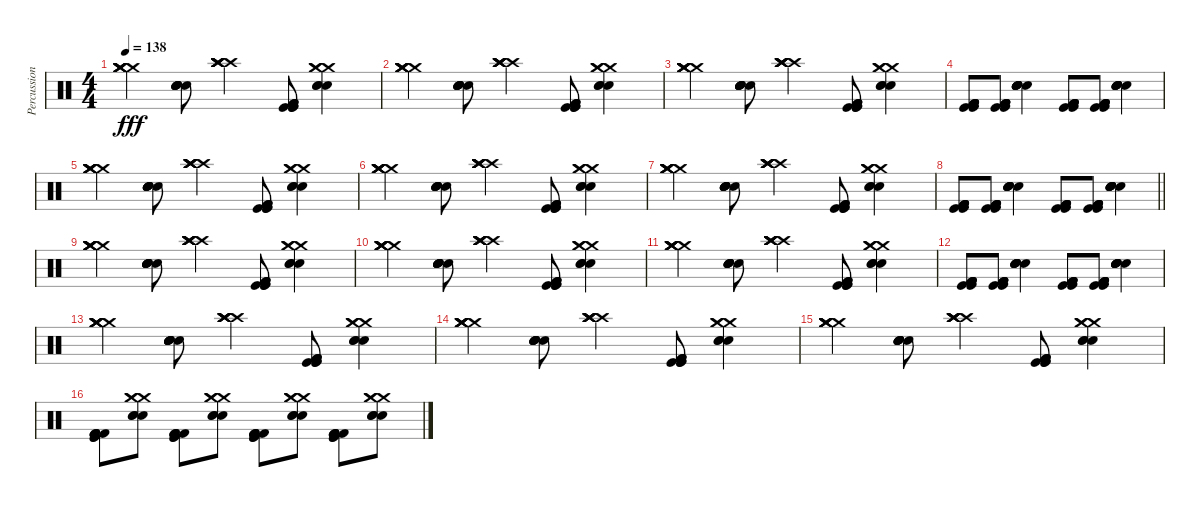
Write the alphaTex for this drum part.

\track ("Percussion" "Percussion") {instrument percussion}
\staff {score}
\articulation defaults
\ts (4 4)
\tempo 138
\clef neutral
\ks c
("Crash medium (hit)" "Crash medium (hit)" "Crash medium (hit)" "Crash medium (hit)" "Crash medium (hit)" "Crash medium (hit)").4{dy fff} ("Electric Snare (hit)" "Snare (hit) 2" "Electric Snare (hit)" "Electric Snare (hit)" "Snare (hit) 2" "Electric Snare (hit)").8 ("Crash high (hit)" "Crash high (hit)" "Crash high (hit)" "Crash high (hit)" "Crash high (hit)" "Crash high (hit)").4 ("Kick (hit)" "Kick (hit) 2" "Kick (hit)" "Kick (hit) 2" "Kick (hit) 2" "Kick (hit)").8 ("Crash medium (hit)" "Crash medium (hit)" "Crash medium (hit)" "Electric Snare (hit)" "Electric Snare (hit)" "Electric Snare (hit)").4 |
("Crash medium (hit)" "Crash medium (hit)" "Crash medium (hit)" "Crash medium (hit)" "Crash medium (hit)" "Crash medium (hit)").4 ("Electric Snare (hit)" "Snare (hit) 2" "Electric Snare (hit)" "Electric Snare (hit)" "Snare (hit) 2" "Electric Snare (hit)").8 ("Crash high (hit)" "Crash high (hit)" "Crash high (hit)" "Crash high (hit)" "Crash high (hit)" "Crash high (hit)").4 ("Kick (hit)" "Kick (hit) 2" "Kick (hit)" "Kick (hit) 2" "Kick (hit) 2" "Kick (hit)").8 ("Crash medium (hit)" "Crash medium (hit)" "Crash medium (hit)" "Electric Snare (hit)" "Electric Snare (hit)" "Electric Snare (hit)").4 |
("Crash medium (hit)" "Crash medium (hit)" "Crash medium (hit)" "Crash medium (hit)" "Crash medium (hit)" "Crash medium (hit)").4 ("Electric Snare (hit)" "Snare (hit) 2" "Electric Snare (hit)" "Electric Snare (hit)" "Snare (hit) 2" "Electric Snare (hit)").8 ("Crash high (hit)" "Crash high (hit)" "Crash high (hit)" "Crash high (hit)" "Crash high (hit)" "Crash high (hit)").4 ("Kick (hit)" "Kick (hit) 2" "Kick (hit)" "Kick (hit) 2" "Kick (hit) 2" "Kick (hit)").8 ("Crash medium (hit)" "Crash medium (hit)" "Crash medium (hit)" "Electric Snare (hit)" "Electric Snare (hit)" "Electric Snare (hit)").4 |
("Kick (hit) 2" "Kick (hit)" "Kick (hit) 2" "Kick (hit) 2" "Kick (hit)" "Kick (hit) 2").8 ("Kick (hit) 2" "Kick (hit)" "Kick (hit) 2" "Kick (hit) 2" "Kick (hit)" "Kick (hit) 2").8 ("Electric Snare (hit)" "Snare (hit) 2" "Electric Snare (hit)" "Electric Snare (hit)" "Snare (hit) 2" "Electric Snare (hit)").4 ("Kick (hit) 2" "Kick (hit)" "Kick (hit) 2" "Kick (hit) 2" "Kick (hit)" "Kick (hit) 2").8 ("Kick (hit) 2" "Kick (hit)" "Kick (hit) 2" "Kick (hit) 2" "Kick (hit)" "Kick (hit) 2").8 ("Electric Snare (hit)" "Snare (hit) 2" "Electric Snare (hit)" "Electric Snare (hit)" "Snare (hit) 2" "Electric Snare (hit)").4 |
("Crash medium (hit)" "Crash medium (hit)" "Crash medium (hit)" "Crash medium (hit)" "Crash medium (hit)" "Crash medium (hit)").4 ("Electric Snare (hit)" "Snare (hit) 2" "Electric Snare (hit)" "Electric Snare (hit)" "Snare (hit) 2" "Electric Snare (hit)").8 ("Crash high (hit)" "Crash high (hit)" "Crash high (hit)" "Crash high (hit)" "Crash high (hit)" "Crash high (hit)").4 ("Kick (hit)" "Kick (hit) 2" "Kick (hit)" "Kick (hit) 2" "Kick (hit) 2" "Kick (hit)").8 ("Crash medium (hit)" "Crash medium (hit)" "Crash medium (hit)" "Electric Snare (hit)" "Electric Snare (hit)" "Electric Snare (hit)").4 |
("Crash medium (hit)" "Crash medium (hit)" "Crash medium (hit)" "Crash medium (hit)" "Crash medium (hit)" "Crash medium (hit)").4 ("Electric Snare (hit)" "Snare (hit) 2" "Electric Snare (hit)" "Electric Snare (hit)" "Snare (hit) 2" "Electric Snare (hit)").8 ("Crash high (hit)" "Crash high (hit)" "Crash high (hit)" "Crash high (hit)" "Crash high (hit)" "Crash high (hit)").4 ("Kick (hit)" "Kick (hit) 2" "Kick (hit)" "Kick (hit) 2" "Kick (hit) 2" "Kick (hit)").8 ("Crash medium (hit)" "Crash medium (hit)" "Crash medium (hit)" "Electric Snare (hit)" "Electric Snare (hit)" "Electric Snare (hit)").4 |
("Crash medium (hit)" "Crash medium (hit)" "Crash medium (hit)" "Crash medium (hit)" "Crash medium (hit)" "Crash medium (hit)").4 ("Electric Snare (hit)" "Snare (hit) 2" "Electric Snare (hit)" "Electric Snare (hit)" "Snare (hit) 2" "Electric Snare (hit)").8 ("Crash high (hit)" "Crash high (hit)" "Crash high (hit)" "Crash high (hit)" "Crash high (hit)" "Crash high (hit)").4 ("Kick (hit)" "Kick (hit) 2" "Kick (hit)" "Kick (hit) 2" "Kick (hit) 2" "Kick (hit)").8 ("Crash medium (hit)" "Crash medium (hit)" "Crash medium (hit)" "Electric Snare (hit)" "Electric Snare (hit)" "Electric Snare (hit)").4 |
\barLineRight lightlight
("Kick (hit) 2" "Kick (hit)" "Kick (hit) 2" "Kick (hit) 2" "Kick (hit)" "Kick (hit) 2").8 ("Kick (hit) 2" "Kick (hit)" "Kick (hit) 2" "Kick (hit) 2" "Kick (hit)" "Kick (hit) 2").8 ("Electric Snare (hit)" "Snare (hit) 2" "Electric Snare (hit)" "Electric Snare (hit)" "Snare (hit) 2" "Electric Snare (hit)").4 ("Kick (hit) 2" "Kick (hit)" "Kick (hit) 2" "Kick (hit) 2" "Kick (hit)" "Kick (hit) 2").8 ("Kick (hit) 2" "Kick (hit)" "Kick (hit) 2" "Kick (hit) 2" "Kick (hit)" "Kick (hit) 2").8 ("Electric Snare (hit)" "Snare (hit) 2" "Electric Snare (hit)" "Electric Snare (hit)" "Snare (hit) 2" "Electric Snare (hit)").4 |
("Crash medium (hit)" "Crash medium (hit)" "Crash medium (hit)" "Crash medium (hit)" "Crash medium (hit)" "Crash medium (hit)").4 ("Electric Snare (hit)" "Snare (hit) 2" "Electric Snare (hit)" "Electric Snare (hit)" "Snare (hit) 2" "Electric Snare (hit)").8 ("Crash high (hit)" "Crash high (hit)" "Crash high (hit)" "Crash high (hit)" "Crash high (hit)" "Crash high (hit)").4 ("Kick (hit)" "Kick (hit) 2" "Kick (hit)" "Kick (hit) 2" "Kick (hit) 2" "Kick (hit)").8 ("Crash medium (hit)" "Crash medium (hit)" "Crash medium (hit)" "Electric Snare (hit)" "Electric Snare (hit)" "Electric Snare (hit)").4 |
("Crash medium (hit)" "Crash medium (hit)" "Crash medium (hit)" "Crash medium (hit)" "Crash medium (hit)" "Crash medium (hit)").4 ("Electric Snare (hit)" "Snare (hit) 2" "Electric Snare (hit)" "Electric Snare (hit)" "Snare (hit) 2" "Electric Snare (hit)").8 ("Crash high (hit)" "Crash high (hit)" "Crash high (hit)" "Crash high (hit)" "Crash high (hit)" "Crash high (hit)").4 ("Kick (hit)" "Kick (hit) 2" "Kick (hit)" "Kick (hit) 2" "Kick (hit) 2" "Kick (hit)").8 ("Crash medium (hit)" "Crash medium (hit)" "Crash medium (hit)" "Electric Snare (hit)" "Electric Snare (hit)" "Electric Snare (hit)").4 |
("Crash medium (hit)" "Crash medium (hit)" "Crash medium (hit)" "Crash medium (hit)" "Crash medium (hit)" "Crash medium (hit)").4 ("Electric Snare (hit)" "Snare (hit) 2" "Electric Snare (hit)" "Electric Snare (hit)" "Snare (hit) 2" "Electric Snare (hit)").8 ("Crash high (hit)" "Crash high (hit)" "Crash high (hit)" "Crash high (hit)" "Crash high (hit)" "Crash high (hit)").4 ("Kick (hit)" "Kick (hit) 2" "Kick (hit)" "Kick (hit) 2" "Kick (hit) 2" "Kick (hit)").8 ("Crash medium (hit)" "Crash medium (hit)" "Crash medium (hit)" "Electric Snare (hit)" "Electric Snare (hit)" "Electric Snare (hit)").4 |
("Kick (hit) 2" "Kick (hit)" "Kick (hit) 2" "Kick (hit) 2" "Kick (hit)" "Kick (hit) 2").8 ("Kick (hit) 2" "Kick (hit)" "Kick (hit) 2" "Kick (hit) 2" "Kick (hit)" "Kick (hit) 2").8 ("Electric Snare (hit)" "Snare (hit) 2" "Electric Snare (hit)" "Electric Snare (hit)" "Snare (hit) 2" "Electric Snare (hit)").4 ("Kick (hit) 2" "Kick (hit)" "Kick (hit) 2" "Kick (hit) 2" "Kick (hit)" "Kick (hit) 2").8 ("Kick (hit) 2" "Kick (hit)" "Kick (hit) 2" "Kick (hit) 2" "Kick (hit)" "Kick (hit) 2").8 ("Electric Snare (hit)" "Snare (hit) 2" "Electric Snare (hit)" "Electric Snare (hit)" "Snare (hit) 2" "Electric Snare (hit)").4 |
("Crash medium (hit)" "Crash medium (hit)" "Crash medium (hit)" "Crash medium (hit)" "Crash medium (hit)" "Crash medium (hit)").4 ("Electric Snare (hit)" "Snare (hit) 2" "Electric Snare (hit)" "Electric Snare (hit)" "Snare (hit) 2" "Electric Snare (hit)").8 ("Crash high (hit)" "Crash high (hit)" "Crash high (hit)" "Crash high (hit)" "Crash high (hit)" "Crash high (hit)").4 ("Kick (hit)" "Kick (hit) 2" "Kick (hit)" "Kick (hit) 2" "Kick (hit) 2" "Kick (hit)").8 ("Crash medium (hit)" "Crash medium (hit)" "Crash medium (hit)" "Electric Snare (hit)" "Electric Snare (hit)" "Electric Snare (hit)").4 |
("Crash medium (hit)" "Crash medium (hit)" "Crash medium (hit)" "Crash medium (hit)" "Crash medium (hit)" "Crash medium (hit)").4 ("Electric Snare (hit)" "Snare (hit) 2" "Electric Snare (hit)" "Electric Snare (hit)" "Snare (hit) 2" "Electric Snare (hit)").8 ("Crash high (hit)" "Crash high (hit)" "Crash high (hit)" "Crash high (hit)" "Crash high (hit)" "Crash high (hit)").4 ("Kick (hit)" "Kick (hit) 2" "Kick (hit)" "Kick (hit) 2" "Kick (hit) 2" "Kick (hit)").8 ("Crash medium (hit)" "Crash medium (hit)" "Crash medium (hit)" "Electric Snare (hit)" "Electric Snare (hit)" "Electric Snare (hit)").4 |
("Crash medium (hit)" "Crash medium (hit)" "Crash medium (hit)" "Crash medium (hit)" "Crash medium (hit)" "Crash medium (hit)").4 ("Electric Snare (hit)" "Snare (hit) 2" "Electric Snare (hit)" "Electric Snare (hit)" "Snare (hit) 2" "Electric Snare (hit)").8 ("Crash high (hit)" "Crash high (hit)" "Crash high (hit)" "Crash high (hit)" "Crash high (hit)" "Crash high (hit)").4 ("Kick (hit)" "Kick (hit) 2" "Kick (hit)" "Kick (hit) 2" "Kick (hit) 2" "Kick (hit)").8 ("Crash medium (hit)" "Crash medium (hit)" "Crash medium (hit)" "Electric Snare (hit)" "Electric Snare (hit)" "Electric Snare (hit)").4 |
("Kick (hit) 2" "Kick (hit)" "Kick (hit) 2" "Kick (hit) 2" "Kick (hit)" "Kick (hit) 2").8 ("Crash medium (hit)" "Crash medium (hit)" "Crash medium (hit)" "Electric Snare (hit)" "Electric Snare (hit)" "Electric Snare (hit)").8 ("Kick (hit) 2" "Kick (hit)" "Kick (hit) 2" "Kick (hit) 2" "Kick (hit)" "Kick (hit) 2").8 ("Crash medium (hit)" "Crash medium (hit)" "Crash medium (hit)" "Electric Snare (hit)" "Electric Snare (hit)" "Electric Snare (hit)").8 ("Kick (hit) 2" "Kick (hit)" "Kick (hit) 2" "Kick (hit) 2" "Kick (hit)" "Kick (hit) 2").8 ("Crash medium (hit)" "Crash medium (hit)" "Crash medium (hit)" "Electric Snare (hit)" "Electric Snare (hit)" "Electric Snare (hit)").8 ("Kick (hit) 2" "Kick (hit)" "Kick (hit) 2" "Kick (hit) 2" "Kick (hit)" "Kick (hit) 2").8 ("Crash medium (hit)" "Crash medium (hit)" "Crash medium (hit)" "Electric Snare (hit)" "Electric Snare (hit)" "Electric Snare (hit)").8
